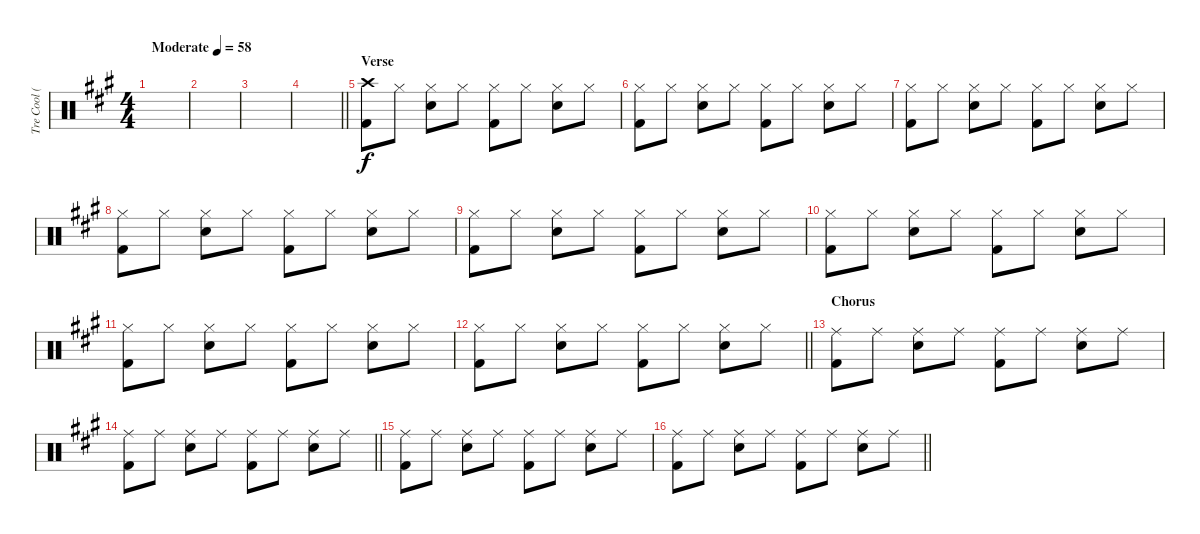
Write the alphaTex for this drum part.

\track ("Tre Cool (Drums)" "Tre Cool (") {instrument percussion}
\staff {score}
\articulation defaults
\ts (4 4)
\tempo (58 "Moderate")
\clef neutral
\ks a
|
|
|
\barLineRight lightlight
|
\section ("" "Verse")
("Crash high (hit)" "Kick (hit) 2").8 "Hi-Hat (closed)".8 ("Hi-Hat (closed)" "Electric Snare (hit)").8 "Hi-Hat (closed)".8 ("Hi-Hat (closed)" "Kick (hit) 2").8 "Hi-Hat (closed)".8 ("Hi-Hat (closed)" "Electric Snare (hit)").8 "Hi-Hat (closed)".8 |
("Hi-Hat (closed)" "Kick (hit) 2").8 "Hi-Hat (closed)".8 ("Hi-Hat (closed)" "Electric Snare (hit)").8 "Hi-Hat (closed)".8 ("Hi-Hat (closed)" "Kick (hit) 2").8 "Hi-Hat (closed)".8 ("Hi-Hat (closed)" "Electric Snare (hit)").8 "Hi-Hat (closed)".8 |
("Hi-Hat (closed)" "Kick (hit) 2").8 "Hi-Hat (closed)".8 ("Hi-Hat (closed)" "Electric Snare (hit)").8 "Hi-Hat (closed)".8 ("Hi-Hat (closed)" "Kick (hit) 2").8 "Hi-Hat (closed)".8 ("Hi-Hat (closed)" "Electric Snare (hit)").8 "Hi-Hat (closed)".8 |
("Hi-Hat (closed)" "Kick (hit) 2").8 "Hi-Hat (closed)".8 ("Hi-Hat (closed)" "Electric Snare (hit)").8 "Hi-Hat (closed)".8 ("Hi-Hat (closed)" "Kick (hit) 2").8 "Hi-Hat (closed)".8 ("Hi-Hat (closed)" "Electric Snare (hit)").8 "Hi-Hat (closed)".8 |
("Hi-Hat (closed)" "Kick (hit) 2").8 "Hi-Hat (closed)".8 ("Hi-Hat (closed)" "Electric Snare (hit)").8 "Hi-Hat (closed)".8 ("Hi-Hat (closed)" "Kick (hit) 2").8 "Hi-Hat (closed)".8 ("Hi-Hat (closed)" "Electric Snare (hit)").8 "Hi-Hat (closed)".8 |
("Hi-Hat (closed)" "Kick (hit) 2").8 "Hi-Hat (closed)".8 ("Hi-Hat (closed)" "Electric Snare (hit)").8 "Hi-Hat (closed)".8 ("Hi-Hat (closed)" "Kick (hit) 2").8 "Hi-Hat (closed)".8 ("Hi-Hat (closed)" "Electric Snare (hit)").8 "Hi-Hat (closed)".8 |
("Hi-Hat (closed)" "Kick (hit) 2").8 "Hi-Hat (closed)".8 ("Hi-Hat (closed)" "Electric Snare (hit)").8 "Hi-Hat (closed)".8 ("Hi-Hat (closed)" "Kick (hit) 2").8 "Hi-Hat (closed)".8 ("Hi-Hat (closed)" "Electric Snare (hit)").8 "Hi-Hat (closed)".8 |
\barLineRight lightlight
("Hi-Hat (closed)" "Kick (hit) 2").8 "Hi-Hat (closed)".8 ("Hi-Hat (closed)" "Electric Snare (hit)").8 "Hi-Hat (closed)".8 ("Hi-Hat (closed)" "Kick (hit) 2").8 "Hi-Hat (closed)".8 ("Hi-Hat (closed)" "Electric Snare (hit)").8 "Hi-Hat (closed)".8 |
\section ("" "Chorus")
("Ride (middle)" "Kick (hit) 2").8 "Ride (middle)".8 ("Ride (middle)" "Electric Snare (hit)").8 "Ride (middle)".8 ("Ride (middle)" "Kick (hit) 2").8 "Ride (middle)".8 ("Ride (middle)" "Electric Snare (hit)").8 "Ride (middle)".8 |
\barLineRight lightlight
("Ride (middle)" "Kick (hit) 2").8 "Ride (middle)".8 ("Ride (middle)" "Electric Snare (hit)").8 "Ride (middle)".8 ("Ride (middle)" "Kick (hit) 2").8 "Ride (middle)".8 ("Ride (middle)" "Electric Snare (hit)").8 "Ride (middle)".8 |
("Ride (middle)" "Kick (hit) 2").8 "Ride (middle)".8 ("Ride (middle)" "Electric Snare (hit)").8 "Ride (middle)".8 ("Ride (middle)" "Kick (hit) 2").8 "Ride (middle)".8 ("Ride (middle)" "Electric Snare (hit)").8 "Ride (middle)".8 |
\barLineRight lightlight
("Ride (middle)" "Kick (hit) 2").8 "Ride (middle)".8 ("Ride (middle)" "Electric Snare (hit)").8 "Ride (middle)".8 ("Ride (middle)" "Kick (hit) 2").8 "Ride (middle)".8 ("Ride (middle)" "Electric Snare (hit)").8 "Ride (middle)".8
